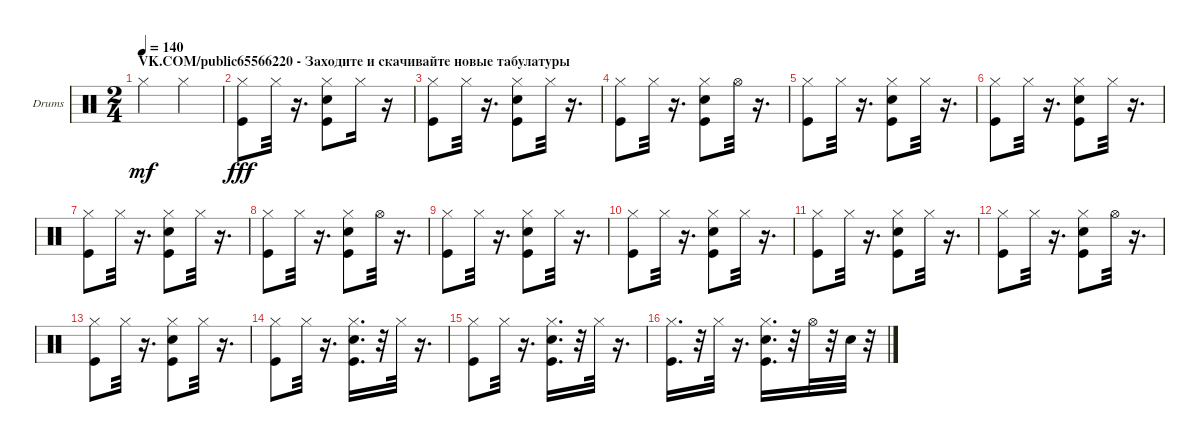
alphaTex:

\bracketExtendMode groupsimilarinstruments
\firstSystemTrackNameOrientation horizontal
\otherSystemsTrackNameOrientation horizontal
\track ("Ударные" "Drums") {instrument percussion}
\staff {score}
\articulation defaults
\ts (2 4)
\section ("" "VK.COM/public65566220 - Заходите и скачивайте новые табулатуры")
\tempo 140
\clef neutral
\ks c "Hi-Hat (closed)".4{dy mf} "Hi-Hat (closed)".4
|
("Kick (hit)" "Hi-Hat (closed)").8{dy fff} "Hi-Hat (closed)".32 r.16{d} ("Snare (hit) 2" "Kick (hit)" "Hi-Hat (closed)").8 "Hi-Hat (closed)".16 r.16 |
("Kick (hit)" "Hi-Hat (closed)").8 "Hi-Hat (closed)".32 r.16{d} ("Kick (hit)" "Hi-Hat (closed)" "Snare (hit) 2").8 "Hi-Hat (closed)".32 r.16{d} |
("Kick (hit)" "Hi-Hat (closed)").8 "Hi-Hat (closed)".32 r.16{d} ("Hi-Hat (closed)" "Kick (hit)" "Snare (hit) 2").8 "Hi-Hat (open)".32 r.16{d} |
("Kick (hit)" "Hi-Hat (closed)").8 "Hi-Hat (closed)".32 r.16{d} ("Kick (hit)" "Hi-Hat (closed)" "Snare (hit) 2").8 "Hi-Hat (closed)".32 r.16{d} |
("Kick (hit)" "Hi-Hat (closed)").8 "Hi-Hat (closed)".32 r.16{d} ("Hi-Hat (closed)" "Snare (hit) 2" "Kick (hit)").8 "Hi-Hat (closed)".32 r.16{d} |
("Kick (hit)" "Hi-Hat (closed)").8 "Hi-Hat (closed)".32 r.16{d} ("Snare (hit) 2" "Kick (hit)" "Hi-Hat (closed)").8 "Hi-Hat (closed)".32 r.16{d} |
("Kick (hit)" "Hi-Hat (closed)").8 "Hi-Hat (closed)".32 r.16{d} ("Hi-Hat (closed)" "Snare (hit) 2" "Kick (hit)").8 "Hi-Hat (open)".32 r.16{d} |
("Kick (hit)" "Hi-Hat (closed)").8 "Hi-Hat (closed)".32 r.16{d} ("Hi-Hat (closed)" "Snare (hit) 2" "Kick (hit)").8 "Hi-Hat (closed)".32 r.16{d} |
("Kick (hit)" "Hi-Hat (closed)").8 "Hi-Hat (closed)".32 r.16{d} ("Kick (hit)" "Hi-Hat (closed)" "Snare (hit) 2").8 "Hi-Hat (closed)".32 r.16{d} |
("Kick (hit)" "Hi-Hat (closed)").8 "Hi-Hat (closed)".32 r.16{d} ("Snare (hit) 2" "Kick (hit)" "Hi-Hat (closed)").8 "Hi-Hat (closed)".32 r.16{d} |
("Kick (hit)" "Hi-Hat (closed)").8 "Hi-Hat (closed)".32 r.16{d} ("Snare (hit) 2" "Kick (hit)" "Hi-Hat (closed)").8 "Hi-Hat (open)".32 r.16{d} |
("Kick (hit)" "Hi-Hat (closed)").8 "Hi-Hat (closed)".32 r.16{d} ("Snare (hit) 2" "Kick (hit)" "Hi-Hat (closed)").8 "Hi-Hat (closed)".32 r.16{d} |
("Kick (hit)" "Hi-Hat (closed)").8 "Hi-Hat (closed)".32 r.16{d} ("Kick (hit)" "Hi-Hat (closed)" "Snare (hit) 2").16{d} r.32 "Hi-Hat (closed)".32 r.16{d} |
("Kick (hit)" "Hi-Hat (closed)").8 "Hi-Hat (closed)".32 r.16{d} ("Snare (hit) 2" "Kick (hit)" "Hi-Hat (closed)").16{d} r.32 "Hi-Hat (closed)".32 r.16{d} |
("Kick (hit)" "Hi-Hat (closed)").16{d} r.32 "Hi-Hat (closed)".32 r.16{d} ("Snare (hit) 2" "Kick (hit)" "Hi-Hat (closed)").16{d} r.32 "Hi-Hat (open)".32 r.32 "Snare (hit) 2".32 r.32
